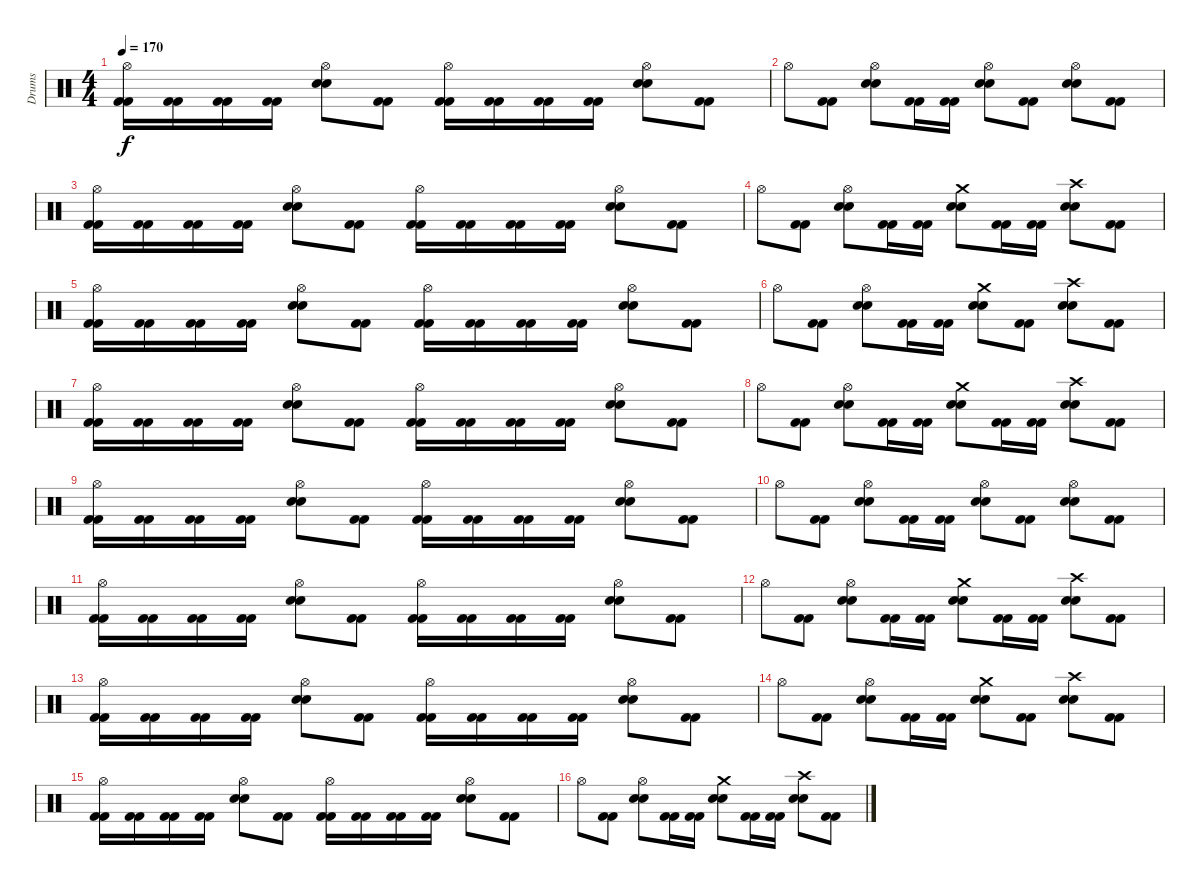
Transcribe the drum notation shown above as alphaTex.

\track ("Drums" "Drums") {instrument percussion}
\staff {score}
\articulation defaults
\ts (4 4)
\tempo 170
\clef neutral
\ks c
("Hi-Hat (open)" "Kick (hit) 2" "Kick (hit) 2").16{dy f} ("Kick (hit) 2" "Kick (hit) 2").16 ("Kick (hit) 2" "Kick (hit) 2").16 ("Kick (hit) 2" "Kick (hit) 2").16 ("Hi-Hat (open)" "Electric Snare (hit)" "Electric Snare (hit)").8 ("Kick (hit) 2" "Kick (hit) 2").8 ("Hi-Hat (open)" "Kick (hit) 2" "Kick (hit) 2").16 ("Kick (hit) 2" "Kick (hit) 2").16 ("Kick (hit) 2" "Kick (hit) 2").16 ("Kick (hit) 2" "Kick (hit) 2").16 ("Hi-Hat (open)" "Electric Snare (hit)" "Electric Snare (hit)").8 ("Kick (hit) 2" "Kick (hit) 2").8 |
"Hi-Hat (open)".8 ("Kick (hit) 2" "Kick (hit) 2").8 ("Hi-Hat (open)" "Electric Snare (hit)" "Electric Snare (hit)").8 ("Kick (hit) 2" "Kick (hit) 2").16 ("Kick (hit) 2" "Kick (hit) 2").16 ("Hi-Hat (open)" "Electric Snare (hit)" "Electric Snare (hit)").8 ("Kick (hit) 2" "Kick (hit) 2").8 ("Hi-Hat (open)" "Electric Snare (hit)" "Electric Snare (hit)").8 ("Kick (hit) 2" "Kick (hit) 2").8 |
("Hi-Hat (open)" "Kick (hit) 2" "Kick (hit) 2").16 ("Kick (hit) 2" "Kick (hit) 2").16 ("Kick (hit) 2" "Kick (hit) 2").16 ("Kick (hit) 2" "Kick (hit) 2").16 ("Hi-Hat (open)" "Electric Snare (hit)" "Electric Snare (hit)").8 ("Kick (hit) 2" "Kick (hit) 2").8 ("Hi-Hat (open)" "Kick (hit) 2" "Kick (hit) 2").16 ("Kick (hit) 2" "Kick (hit) 2").16 ("Kick (hit) 2" "Kick (hit) 2").16 ("Kick (hit) 2" "Kick (hit) 2").16 ("Hi-Hat (open)" "Electric Snare (hit)" "Electric Snare (hit)").8 ("Kick (hit) 2" "Kick (hit) 2").8 |
"Hi-Hat (open)".8 ("Kick (hit) 2" "Kick (hit) 2").8 ("Hi-Hat (open)" "Electric Snare (hit)" "Electric Snare (hit)").8 ("Kick (hit) 2" "Kick (hit) 2").16 ("Kick (hit) 2" "Kick (hit) 2").16 ("Crash medium (hit)" "Electric Snare (hit)" "Electric Snare (hit)").8 ("Kick (hit) 2" "Kick (hit) 2").16 ("Kick (hit) 2" "Kick (hit) 2").16 ("Crash high (hit)" "Electric Snare (hit)" "Electric Snare (hit)").8 ("Kick (hit) 2" "Kick (hit) 2").8 |
("Hi-Hat (open)" "Kick (hit) 2" "Kick (hit) 2").16 ("Kick (hit) 2" "Kick (hit) 2").16 ("Kick (hit) 2" "Kick (hit) 2").16 ("Kick (hit) 2" "Kick (hit) 2").16 ("Hi-Hat (open)" "Electric Snare (hit)" "Electric Snare (hit)").8 ("Kick (hit) 2" "Kick (hit) 2").8 ("Hi-Hat (open)" "Kick (hit) 2" "Kick (hit) 2").16 ("Kick (hit) 2" "Kick (hit) 2").16 ("Kick (hit) 2" "Kick (hit) 2").16 ("Kick (hit) 2" "Kick (hit) 2").16 ("Hi-Hat (open)" "Electric Snare (hit)" "Electric Snare (hit)").8 ("Kick (hit) 2" "Kick (hit) 2").8 |
"Hi-Hat (open)".8 ("Kick (hit) 2" "Kick (hit) 2").8 ("Hi-Hat (open)" "Electric Snare (hit)" "Electric Snare (hit)").8 ("Kick (hit) 2" "Kick (hit) 2").16 ("Kick (hit) 2" "Kick (hit) 2").16 ("Crash medium (hit)" "Electric Snare (hit)" "Electric Snare (hit)").8 ("Kick (hit) 2" "Kick (hit) 2").8 ("Crash high (hit)" "Electric Snare (hit)" "Electric Snare (hit)").8 ("Kick (hit) 2" "Kick (hit) 2").8 |
("Hi-Hat (open)" "Kick (hit) 2" "Kick (hit) 2").16 ("Kick (hit) 2" "Kick (hit) 2").16 ("Kick (hit) 2" "Kick (hit) 2").16 ("Kick (hit) 2" "Kick (hit) 2").16 ("Hi-Hat (open)" "Electric Snare (hit)" "Electric Snare (hit)").8 ("Kick (hit) 2" "Kick (hit) 2").8 ("Hi-Hat (open)" "Kick (hit) 2" "Kick (hit) 2").16 ("Kick (hit) 2" "Kick (hit) 2").16 ("Kick (hit) 2" "Kick (hit) 2").16 ("Kick (hit) 2" "Kick (hit) 2").16 ("Hi-Hat (open)" "Electric Snare (hit)" "Electric Snare (hit)").8 ("Kick (hit) 2" "Kick (hit) 2").8 |
"Hi-Hat (open)".8 ("Kick (hit) 2" "Kick (hit) 2").8 ("Hi-Hat (open)" "Electric Snare (hit)" "Electric Snare (hit)").8 ("Kick (hit) 2" "Kick (hit) 2").16 ("Kick (hit) 2" "Kick (hit) 2").16 ("Crash medium (hit)" "Electric Snare (hit)" "Electric Snare (hit)").8 ("Kick (hit) 2" "Kick (hit) 2").16 ("Kick (hit) 2" "Kick (hit) 2").16 ("Crash high (hit)" "Electric Snare (hit)" "Electric Snare (hit)").8 ("Kick (hit) 2" "Kick (hit) 2").8 |
("Hi-Hat (open)" "Kick (hit) 2" "Kick (hit) 2").16 ("Kick (hit) 2" "Kick (hit) 2").16 ("Kick (hit) 2" "Kick (hit) 2").16 ("Kick (hit) 2" "Kick (hit) 2").16 ("Hi-Hat (open)" "Electric Snare (hit)" "Electric Snare (hit)").8 ("Kick (hit) 2" "Kick (hit) 2").8 ("Hi-Hat (open)" "Kick (hit) 2" "Kick (hit) 2").16 ("Kick (hit) 2" "Kick (hit) 2").16 ("Kick (hit) 2" "Kick (hit) 2").16 ("Kick (hit) 2" "Kick (hit) 2").16 ("Hi-Hat (open)" "Electric Snare (hit)" "Electric Snare (hit)").8 ("Kick (hit) 2" "Kick (hit) 2").8 |
"Hi-Hat (open)".8 ("Kick (hit) 2" "Kick (hit) 2").8 ("Hi-Hat (open)" "Electric Snare (hit)" "Electric Snare (hit)").8 ("Kick (hit) 2" "Kick (hit) 2").16 ("Kick (hit) 2" "Kick (hit) 2").16 ("Hi-Hat (open)" "Electric Snare (hit)" "Electric Snare (hit)").8 ("Kick (hit) 2" "Kick (hit) 2").8 ("Hi-Hat (open)" "Electric Snare (hit)" "Electric Snare (hit)").8 ("Kick (hit) 2" "Kick (hit) 2").8 |
("Hi-Hat (open)" "Kick (hit) 2" "Kick (hit) 2").16 ("Kick (hit) 2" "Kick (hit) 2").16 ("Kick (hit) 2" "Kick (hit) 2").16 ("Kick (hit) 2" "Kick (hit) 2").16 ("Hi-Hat (open)" "Electric Snare (hit)" "Electric Snare (hit)").8 ("Kick (hit) 2" "Kick (hit) 2").8 ("Hi-Hat (open)" "Kick (hit) 2" "Kick (hit) 2").16 ("Kick (hit) 2" "Kick (hit) 2").16 ("Kick (hit) 2" "Kick (hit) 2").16 ("Kick (hit) 2" "Kick (hit) 2").16 ("Hi-Hat (open)" "Electric Snare (hit)" "Electric Snare (hit)").8 ("Kick (hit) 2" "Kick (hit) 2").8 |
"Hi-Hat (open)".8 ("Kick (hit) 2" "Kick (hit) 2").8 ("Hi-Hat (open)" "Electric Snare (hit)" "Electric Snare (hit)").8 ("Kick (hit) 2" "Kick (hit) 2").16 ("Kick (hit) 2" "Kick (hit) 2").16 ("Crash medium (hit)" "Electric Snare (hit)" "Electric Snare (hit)").8 ("Kick (hit) 2" "Kick (hit) 2").16 ("Kick (hit) 2" "Kick (hit) 2").16 ("Crash high (hit)" "Electric Snare (hit)" "Electric Snare (hit)").8 ("Kick (hit) 2" "Kick (hit) 2").8 |
("Hi-Hat (open)" "Kick (hit) 2" "Kick (hit) 2").16 ("Kick (hit) 2" "Kick (hit) 2").16 ("Kick (hit) 2" "Kick (hit) 2").16 ("Kick (hit) 2" "Kick (hit) 2").16 ("Hi-Hat (open)" "Electric Snare (hit)" "Electric Snare (hit)").8 ("Kick (hit) 2" "Kick (hit) 2").8 ("Hi-Hat (open)" "Kick (hit) 2" "Kick (hit) 2").16 ("Kick (hit) 2" "Kick (hit) 2").16 ("Kick (hit) 2" "Kick (hit) 2").16 ("Kick (hit) 2" "Kick (hit) 2").16 ("Hi-Hat (open)" "Electric Snare (hit)" "Electric Snare (hit)").8 ("Kick (hit) 2" "Kick (hit) 2").8 |
"Hi-Hat (open)".8 ("Kick (hit) 2" "Kick (hit) 2").8 ("Hi-Hat (open)" "Electric Snare (hit)" "Electric Snare (hit)").8 ("Kick (hit) 2" "Kick (hit) 2").16 ("Kick (hit) 2" "Kick (hit) 2").16 ("Crash medium (hit)" "Electric Snare (hit)" "Electric Snare (hit)").8 ("Kick (hit) 2" "Kick (hit) 2").8 ("Crash high (hit)" "Electric Snare (hit)" "Electric Snare (hit)").8 ("Kick (hit) 2" "Kick (hit) 2").8 |
("Hi-Hat (open)" "Kick (hit) 2" "Kick (hit) 2").16 ("Kick (hit) 2" "Kick (hit) 2").16 ("Kick (hit) 2" "Kick (hit) 2").16 ("Kick (hit) 2" "Kick (hit) 2").16 ("Hi-Hat (open)" "Electric Snare (hit)" "Electric Snare (hit)").8 ("Kick (hit) 2" "Kick (hit) 2").8 ("Hi-Hat (open)" "Kick (hit) 2" "Kick (hit) 2").16 ("Kick (hit) 2" "Kick (hit) 2").16 ("Kick (hit) 2" "Kick (hit) 2").16 ("Kick (hit) 2" "Kick (hit) 2").16 ("Hi-Hat (open)" "Electric Snare (hit)" "Electric Snare (hit)").8 ("Kick (hit) 2" "Kick (hit) 2").8 |
"Hi-Hat (open)".8 ("Kick (hit) 2" "Kick (hit) 2").8 ("Hi-Hat (open)" "Electric Snare (hit)" "Electric Snare (hit)").8 ("Kick (hit) 2" "Kick (hit) 2").16 ("Kick (hit) 2" "Kick (hit) 2").16 ("Crash medium (hit)" "Electric Snare (hit)" "Electric Snare (hit)").8 ("Kick (hit) 2" "Kick (hit) 2").16 ("Kick (hit) 2" "Kick (hit) 2").16 ("Crash high (hit)" "Electric Snare (hit)" "Electric Snare (hit)").8 ("Kick (hit) 2" "Kick (hit) 2").8
